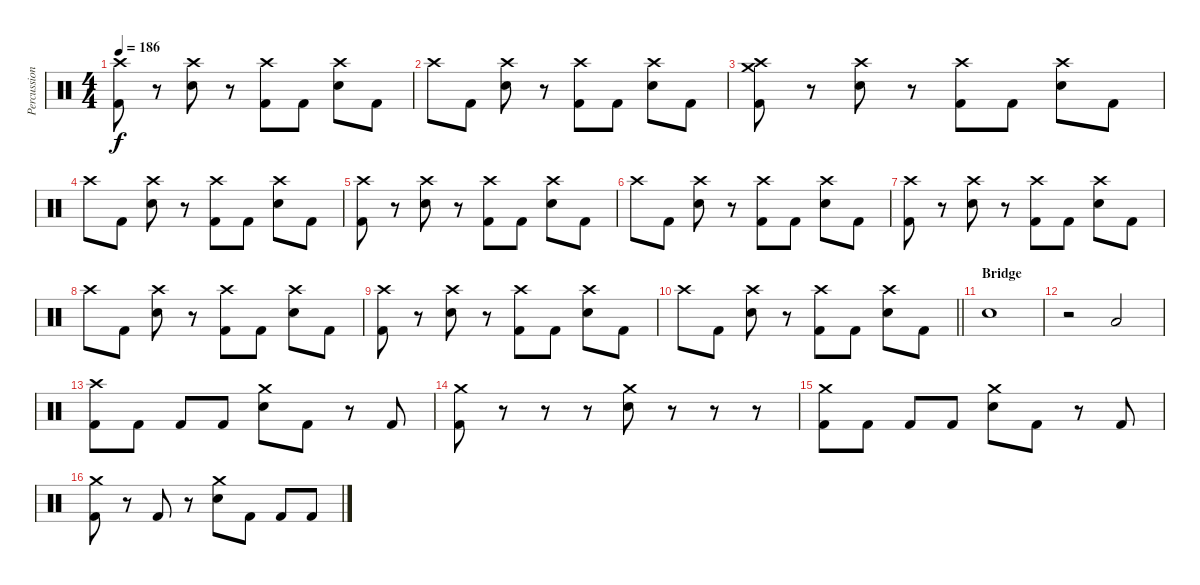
\track ("Percussion" "Percussion") {instrument percussion}
\staff {score}
\articulation defaults
\ts (4 4)
\tempo 186
\clef neutral
\ks c
("Crash high (hit)" "Kick (hit) 2").8{dy f} r.8 ("Crash high (hit)" "Electric Snare (hit)").8 r.8 ("Crash high (hit)" "Kick (hit) 2").8 "Kick (hit) 2".8 ("Crash high (hit)" "Electric Snare (hit)").8 "Kick (hit) 2".8 |
"Crash high (hit)".8 "Kick (hit) 2".8 ("Crash high (hit)" "Electric Snare (hit)").8 r.8 ("Crash high (hit)" "Kick (hit) 2").8 "Kick (hit) 2".8 ("Crash high (hit)" "Electric Snare (hit)").8 "Kick (hit) 2".8 |
("Crash high (hit)" "Crash medium (hit)" "Kick (hit) 2").8 r.8 ("Crash high (hit)" "Electric Snare (hit)").8 r.8 ("Crash high (hit)" "Kick (hit) 2").8 "Kick (hit) 2".8 ("Crash high (hit)" "Electric Snare (hit)").8 "Kick (hit) 2".8 |
"Crash high (hit)".8 "Kick (hit) 2".8 ("Crash high (hit)" "Electric Snare (hit)").8 r.8 ("Crash high (hit)" "Kick (hit) 2").8 "Kick (hit) 2".8 ("Crash high (hit)" "Electric Snare (hit)").8 "Kick (hit) 2".8 |
("Crash high (hit)" "Kick (hit) 2").8 r.8 ("Crash high (hit)" "Electric Snare (hit)").8 r.8 ("Crash high (hit)" "Kick (hit) 2").8 "Kick (hit) 2".8 ("Crash high (hit)" "Electric Snare (hit)").8 "Kick (hit) 2".8 |
"Crash high (hit)".8 "Kick (hit) 2".8 ("Crash high (hit)" "Electric Snare (hit)").8 r.8 ("Crash high (hit)" "Kick (hit) 2").8 "Kick (hit) 2".8 ("Crash high (hit)" "Electric Snare (hit)").8 "Kick (hit) 2".8 |
("Crash high (hit)" "Kick (hit) 2").8 r.8 ("Crash high (hit)" "Electric Snare (hit)").8 r.8 ("Crash high (hit)" "Kick (hit) 2").8 "Kick (hit) 2".8 ("Crash high (hit)" "Electric Snare (hit)").8 "Kick (hit) 2".8 |
"Crash high (hit)".8 "Kick (hit) 2".8 ("Crash high (hit)" "Electric Snare (hit)").8 r.8 ("Crash high (hit)" "Kick (hit) 2").8 "Kick (hit) 2".8 ("Crash high (hit)" "Electric Snare (hit)").8 "Kick (hit) 2".8 |
("Crash high (hit)" "Kick (hit) 2").8 r.8 ("Crash high (hit)" "Electric Snare (hit)").8 r.8 ("Crash high (hit)" "Kick (hit) 2").8 "Kick (hit) 2".8 ("Crash high (hit)" "Electric Snare (hit)").8 "Kick (hit) 2".8 |
\barLineRight lightlight "Crash high (hit)".8 "Kick (hit) 2".8
("Crash high (hit)" "Electric Snare (hit)").8 r.8 ("Crash high (hit)" "Kick (hit) 2").8 "Kick (hit) 2".8 ("Crash high (hit)" "Electric Snare (hit)").8 "Kick (hit) 2".8 |
\section ("" "Bridge")
"Electric Snare (hit)".1 |
r.2 "Low Floor Tom (hit)".2 |
("Crash high (hit)" "Kick (hit) 2").8 "Kick (hit) 2".8 "Kick (hit) 2".8 "Kick (hit) 2".8 ("Crash medium (hit)" "Electric Snare (hit)").8 "Kick (hit) 2".8 r.8 "Kick (hit) 2".8 |
("Crash medium (hit)" "Kick (hit) 2").8 r.8 r.8 r.8 ("Crash medium (hit)" "Electric Snare (hit)").8 r.8 r.8 r.8 |
("Crash medium (hit)" "Kick (hit) 2").8 "Kick (hit) 2".8 "Kick (hit) 2".8 "Kick (hit) 2".8 ("Crash medium (hit)" "Electric Snare (hit)").8 "Kick (hit) 2".8 r.8 "Kick (hit) 2".8 |
("Crash medium (hit)" "Kick (hit) 2").8 r.8 "Kick (hit) 2".8 r.8 ("Crash medium (hit)" "Electric Snare (hit)").8 "Kick (hit) 2".8 "Kick (hit) 2".8 "Kick (hit) 2".8
